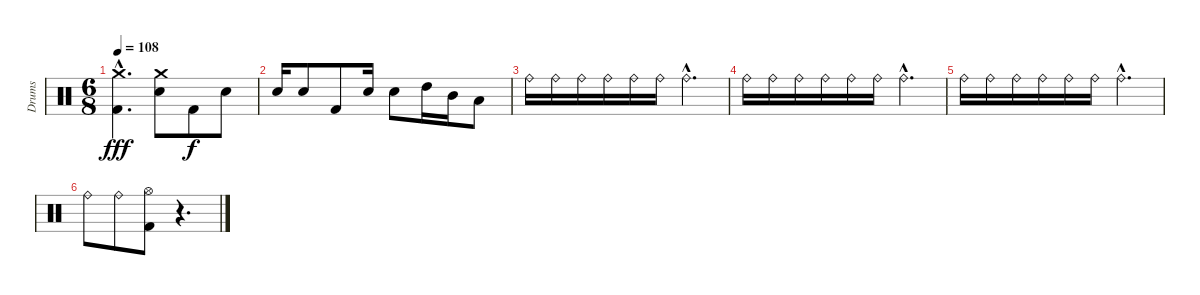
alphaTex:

\track ("Drums" "Drums") {instrument percussion}
\staff {score}
\articulation defaults
\ts (6 8)
\tempo 108
\clef neutral
\ks c
("Crash medium (hit)"{hac} "Kick (hit) 2"{hac}).4{d dy fff} ("Crash medium (hit)" "Snare (hit) 2").8 "Kick (hit) 2".8{dy f} "Snare (hit) 2".8 |
"Snare (hit) 2".16 "Snare (hit) 2".8 "Kick (hit) 2".8 "Snare (hit) 2".16 "Snare (hit) 2".8 "High Tom (hit)".16 "Mid Tom (hit)".16 "Low Tom (hit)".8 |
"Ride (bell)".16 "Ride (bell)".16 "Ride (bell)".16 "Ride (bell)".16 "Ride (bell)".16 "Ride (bell)".16 "Ride (bell)"{hac}.4{d} |
"Ride (bell)".16 "Ride (bell)".16 "Ride (bell)".16 "Ride (bell)".16 "Ride (bell)".16 "Ride (bell)".16 "Ride (bell)"{hac}.4{d} |
"Ride (bell)".16 "Ride (bell)".16 "Ride (bell)".16 "Ride (bell)".16 "Ride (bell)".16 "Ride (bell)".16 "Ride (bell)"{hac}.4{d} |
"Ride (bell)".8 "Ride (bell)".8 ("Hi-Hat (open)" "Kick (hit) 2").8 r.4{d volume 0}
